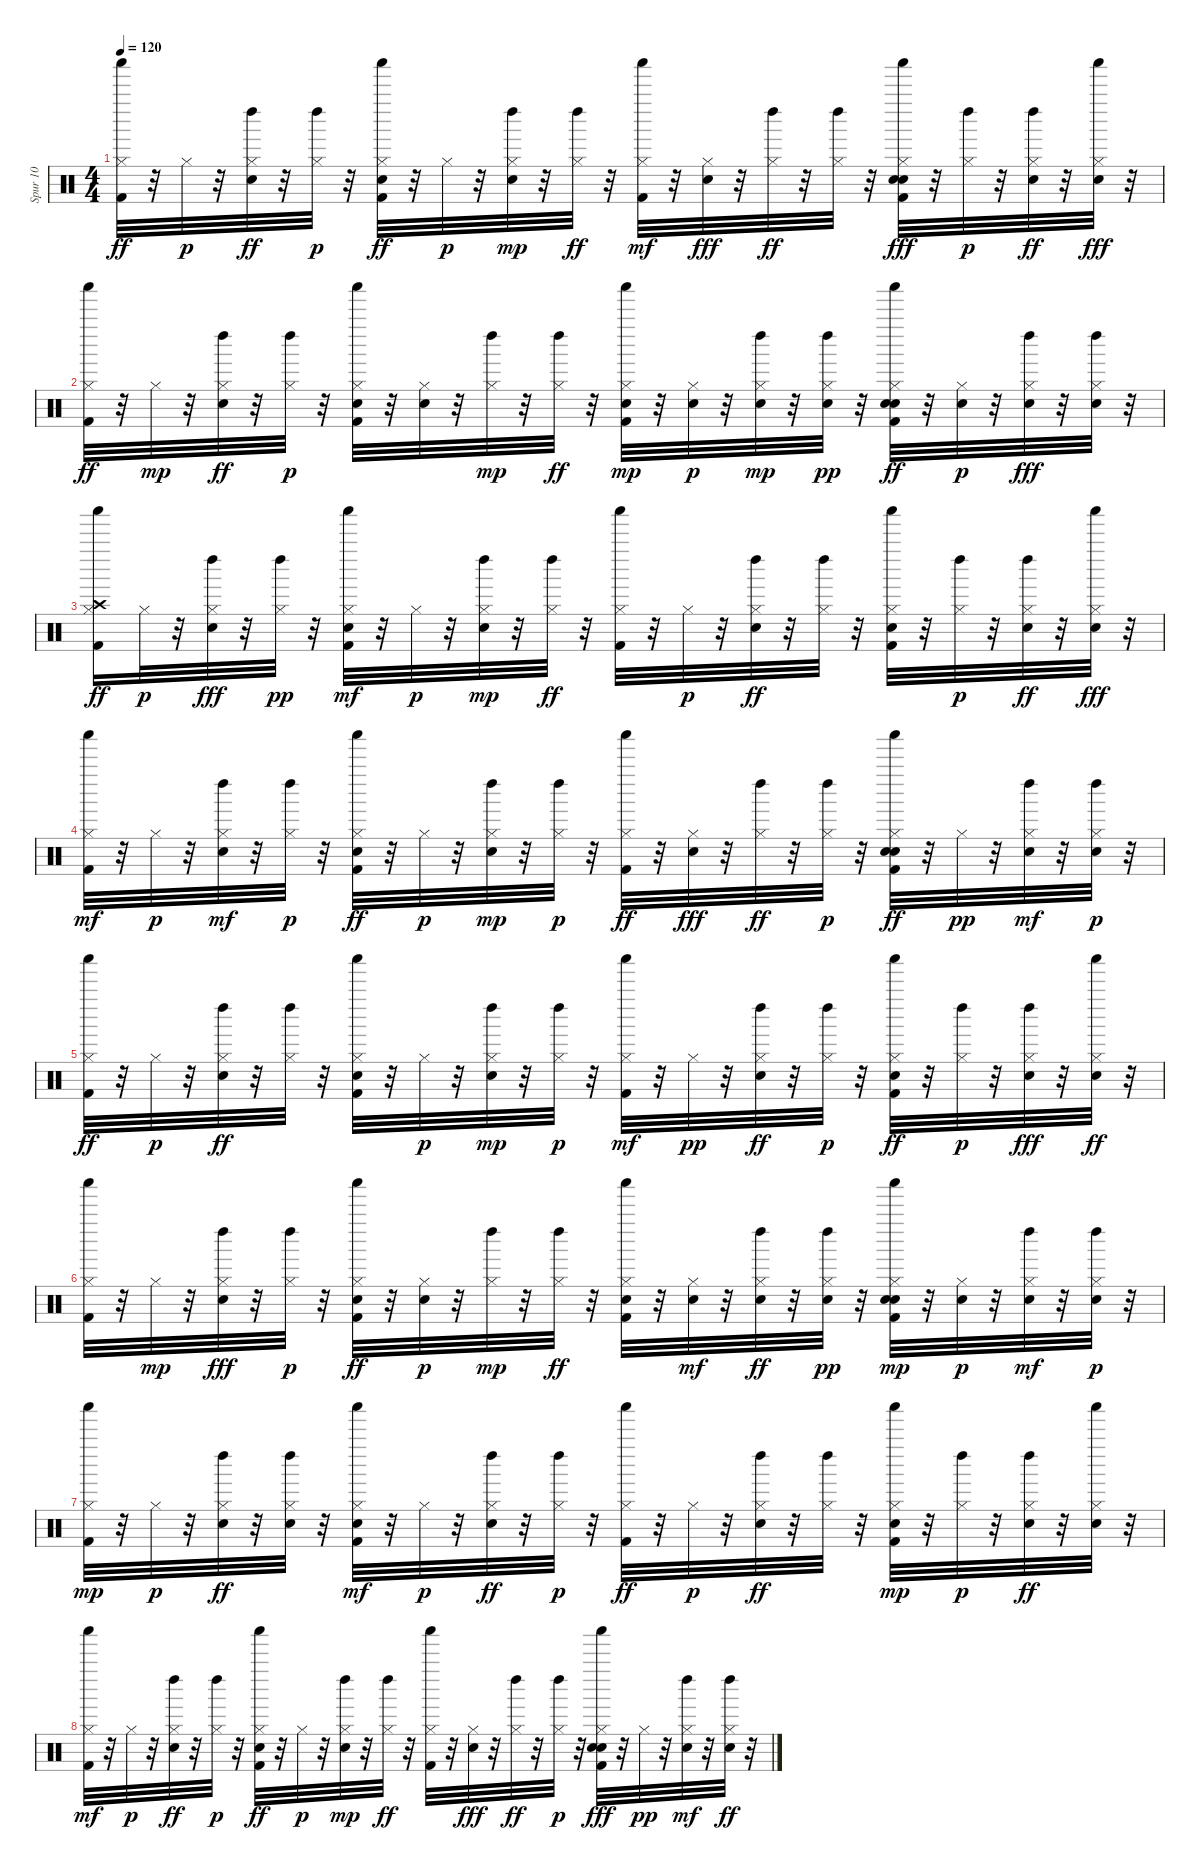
\track ("Spur 10" "Spur 10") {instrument percussion}
\staff {score}
\articulation defaults
\ts (4 4)
\tempo 120
\clef neutral
\ks c
("Hi-Hat (closed)" "Shaker (hit)" "Kick (hit) 2").32{dy ff} r.32 "Hi-Hat (closed)".32{dy p} r.32 ("Electric Snare (hit)" "Left Maraca (hit)" "Hi-Hat (closed)").32{dy ff} r.32 ("Left Maraca (hit)" "Hi-Hat (closed)").32{dy p} r.32 ("Hi-Hat (closed)" "Shaker (hit)" "Snare (hit) 2" "Kick (hit) 2").32{dy ff} r.32 "Hi-Hat (closed)".32{dy p} r.32 ("Electric Snare (hit)" "Hi-Hat (closed)" "Left Maraca (hit)").32{dy mp} r.32 ("Hi-Hat (closed)" "Left Maraca (hit)").32{dy ff} r.32 ("Kick (hit) 2" "Shaker (hit)" "Hi-Hat (closed)").32{dy mf} r.32 ("Hi-Hat (closed)" "Electric Snare (hit)").32{dy fff} r.32 ("Hi-Hat (closed)" "Left Maraca (hit)").32{dy ff} r.32 ("Hi-Hat (closed)" "Left Maraca (hit)").32 r.32 ("Snare (hit) 2" "Shaker (hit)" "Hi-Hat (closed)" "Kick (hit) 2" "Electric Snare (hit)").32{dy fff} r.32 ("Hi-Hat (closed)" "Left Maraca (hit)").32{dy p} r.32 ("Electric Snare (hit)" "Left Maraca (hit)" "Hi-Hat (closed)").32{dy ff} r.32 ("Shaker (hit)" "Electric Snare (hit)" "Hi-Hat (closed)").32{dy fff} r.32 |
("Hi-Hat (closed)" "Kick (hit) 2" "Shaker (hit)").32{dy ff} r.32 "Hi-Hat (closed)".32{dy mp} r.32 ("Left Maraca (hit)" "Electric Snare (hit)" "Hi-Hat (closed)").32{dy ff} r.32 ("Left Maraca (hit)" "Hi-Hat (closed)").32{dy p} r.32 ("Snare (hit) 2" "Kick (hit) 2" "Shaker (hit)" "Hi-Hat (closed)").32 r.32 ("Electric Snare (hit)" "Hi-Hat (closed)").32 r.32 ("Hi-Hat (closed)" "Left Maraca (hit)").32{dy mp} r.32 ("Hi-Hat (closed)" "Left Maraca (hit)").32{dy ff} r.32 ("Electric Snare (hit)" "Kick (hit) 2" "Hi-Hat (closed)" "Shaker (hit)").32{dy mp} r.32 ("Electric Snare (hit)" "Hi-Hat (closed)").32{dy p} r.32 ("Hi-Hat (closed)" "Left Maraca (hit)" "Electric Snare (hit)").32{dy mp} r.32 ("Left Maraca (hit)" "Electric Snare (hit)" "Hi-Hat (closed)").32{dy pp} r.32 ("Kick (hit) 2" "Electric Snare (hit)" "Shaker (hit)" "Hi-Hat (closed)" "Snare (hit) 2").32{dy ff} r.32 ("Electric Snare (hit)" "Hi-Hat (closed)").32{dy p} r.32 ("Left Maraca (hit)" "Hi-Hat (closed)" "Electric Snare (hit)").32{dy fff} r.32 ("Left Maraca (hit)" "Hi-Hat (closed)" "Electric Snare (hit)").32 r.32 |
("Hi-Hat (closed)" "Crash high (hit)" "Kick (hit) 2" "Shaker (hit)").16{dy ff} "Hi-Hat (closed)".32{dy p} r.32 ("Hi-Hat (closed)" "Electric Snare (hit)" "Left Maraca (hit)").32{dy fff} r.32 ("Left Maraca (hit)" "Hi-Hat (closed)").32{dy pp} r.32 ("Kick (hit) 2" "Snare (hit) 2" "Shaker (hit)" "Hi-Hat (closed)").32{dy mf} r.32 "Hi-Hat (closed)".32{dy p} r.32 ("Hi-Hat (closed)" "Electric Snare (hit)" "Left Maraca (hit)").32{dy mp} r.32 ("Hi-Hat (closed)" "Left Maraca (hit)").32{dy ff} r.32 ("Shaker (hit)" "Hi-Hat (closed)" "Kick (hit) 2").32 r.32 "Hi-Hat (closed)".32{dy p} r.32 ("Electric Snare (hit)" "Left Maraca (hit)" "Hi-Hat (closed)").32{dy ff} r.32 ("Hi-Hat (closed)" "Left Maraca (hit)").32 r.32 ("Hi-Hat (closed)" "Shaker (hit)" "Kick (hit) 2" "Snare (hit) 2").32 r.32 ("Left Maraca (hit)" "Hi-Hat (closed)").32{dy p} r.32 ("Electric Snare (hit)" "Hi-Hat (closed)" "Left Maraca (hit)").32{dy ff} r.32 ("Hi-Hat (closed)" "Electric Snare (hit)" "Shaker (hit)").32{dy fff} r.32 |
("Kick (hit) 2" "Hi-Hat (closed)" "Shaker (hit)").32{dy mf} r.32 "Hi-Hat (closed)".32{dy p} r.32 ("Electric Snare (hit)" "Hi-Hat (closed)" "Left Maraca (hit)").32{dy mf} r.32 ("Left Maraca (hit)" "Hi-Hat (closed)").32{dy p} r.32 ("Hi-Hat (closed)" "Shaker (hit)" "Snare (hit) 2" "Kick (hit) 2").32{dy ff} r.32 "Hi-Hat (closed)".32{dy p} r.32 ("Electric Snare (hit)" "Hi-Hat (closed)" "Left Maraca (hit)").32{dy mp} r.32 ("Left Maraca (hit)" "Hi-Hat (closed)").32{dy p} r.32 ("Hi-Hat (closed)" "Kick (hit) 2" "Shaker (hit)").32{dy ff} r.32 ("Hi-Hat (closed)" "Electric Snare (hit)").32{dy fff} r.32 ("Left Maraca (hit)" "Hi-Hat (closed)").32{dy ff} r.32 ("Hi-Hat (closed)" "Left Maraca (hit)").32{dy p} r.32 ("Hi-Hat (closed)" "Electric Snare (hit)" "Snare (hit) 2" "Kick (hit) 2" "Shaker (hit)").32{dy ff} r.32 "Hi-Hat (closed)".32{dy pp} r.32 ("Hi-Hat (closed)" "Electric Snare (hit)" "Left Maraca (hit)").32{dy mf} r.32 ("Left Maraca (hit)" "Electric Snare (hit)" "Hi-Hat (closed)").32{dy p} r.32 |
("Shaker (hit)" "Kick (hit) 2" "Hi-Hat (closed)").32{dy ff} r.32 "Hi-Hat (closed)".32{dy p} r.32 ("Left Maraca (hit)" "Electric Snare (hit)" "Hi-Hat (closed)").32{dy ff} r.32 ("Hi-Hat (closed)" "Left Maraca (hit)").32 r.32 ("Kick (hit) 2" "Shaker (hit)" "Snare (hit) 2" "Hi-Hat (closed)").32 r.32 "Hi-Hat (closed)".32{dy p} r.32 ("Hi-Hat (closed)" "Electric Snare (hit)" "Left Maraca (hit)").32{dy mp} r.32 ("Left Maraca (hit)" "Hi-Hat (closed)").32{dy p} r.32 ("Kick (hit) 2" "Hi-Hat (closed)" "Shaker (hit)").32{dy mf} r.32 "Hi-Hat (closed)".32{dy pp} r.32 ("Left Maraca (hit)" "Electric Snare (hit)" "Hi-Hat (closed)").32{dy ff} r.32 ("Left Maraca (hit)" "Hi-Hat (closed)").32{dy p} r.32 ("Kick (hit) 2" "Hi-Hat (closed)" "Snare (hit) 2" "Shaker (hit)").32{dy ff} r.32 ("Left Maraca (hit)" "Hi-Hat (closed)").32{dy p} r.32 ("Left Maraca (hit)" "Hi-Hat (closed)" "Electric Snare (hit)").32{dy fff} r.32 ("Hi-Hat (closed)" "Electric Snare (hit)" "Shaker (hit)").32{dy ff} r.32 |
("Kick (hit) 2" "Shaker (hit)" "Hi-Hat (closed)").32 r.32 "Hi-Hat (closed)".32{dy mp} r.32 ("Left Maraca (hit)" "Hi-Hat (closed)" "Electric Snare (hit)").32{dy fff} r.32 ("Hi-Hat (closed)" "Left Maraca (hit)").32{dy p} r.32 ("Kick (hit) 2" "Hi-Hat (closed)" "Shaker (hit)" "Snare (hit) 2").32{dy ff} r.32 ("Electric Snare (hit)" "Hi-Hat (closed)").32{dy p} r.32 ("Hi-Hat (closed)" "Left Maraca (hit)").32{dy mp} r.32 ("Hi-Hat (closed)" "Left Maraca (hit)").32{dy ff} r.32 ("Shaker (hit)" "Electric Snare (hit)" "Hi-Hat (closed)" "Kick (hit) 2").32 r.32 ("Hi-Hat (closed)" "Electric Snare (hit)").32{dy mf} r.32 ("Electric Snare (hit)" "Hi-Hat (closed)" "Left Maraca (hit)").32{dy ff} r.32 ("Electric Snare (hit)" "Left Maraca (hit)" "Hi-Hat (closed)").32{dy pp} r.32 ("Kick (hit) 2" "Electric Snare (hit)" "Snare (hit) 2" "Hi-Hat (closed)" "Shaker (hit)").32{dy mp} r.32 ("Electric Snare (hit)" "Hi-Hat (closed)").32{dy p} r.32 ("Electric Snare (hit)" "Hi-Hat (closed)" "Left Maraca (hit)").32{dy mf} r.32 ("Left Maraca (hit)" "Electric Snare (hit)" "Hi-Hat (closed)").32{dy p} r.32 |
("Kick (hit) 2" "Shaker (hit)" "Hi-Hat (closed)").32{dy mp} r.32 "Hi-Hat (closed)".32{dy p} r.32 ("Electric Snare (hit)" "Hi-Hat (closed)" "Left Maraca (hit)").32{dy ff} r.32 ("Hi-Hat (closed)" "Electric Snare (hit)" "Left Maraca (hit)").32 r.32 ("Snare (hit) 2" "Kick (hit) 2" "Shaker (hit)" "Hi-Hat (closed)").32{dy mf} r.32 "Hi-Hat (closed)".32{dy p} r.32 ("Left Maraca (hit)" "Electric Snare (hit)" "Hi-Hat (closed)").32{dy ff} r.32 ("Left Maraca (hit)" "Hi-Hat (closed)").32{dy p} r.32 ("Hi-Hat (closed)" "Shaker (hit)" "Kick (hit) 2").32{dy ff} r.32 "Hi-Hat (closed)".32{dy p} r.32 ("Electric Snare (hit)" "Hi-Hat (closed)" "Left Maraca (hit)").32{dy ff} r.32 ("Hi-Hat (closed)" "Left Maraca (hit)").32 r.32 ("Kick (hit) 2" "Shaker (hit)" "Snare (hit) 2" "Hi-Hat (closed)").32{dy mp} r.32 ("Left Maraca (hit)" "Hi-Hat (closed)").32{dy p} r.32 ("Electric Snare (hit)" "Left Maraca (hit)" "Hi-Hat (closed)").32{dy ff} r.32 ("Hi-Hat (closed)" "Electric Snare (hit)" "Shaker (hit)").32 r.32 |
("Kick (hit) 2" "Hi-Hat (closed)" "Shaker (hit)").32{dy mf} r.32 "Hi-Hat (closed)".32{dy p} r.32 ("Electric Snare (hit)" "Left Maraca (hit)" "Hi-Hat (closed)").32{dy ff} r.32 ("Left Maraca (hit)" "Hi-Hat (closed)").32{dy p} r.32 ("Snare (hit) 2" "Hi-Hat (closed)" "Shaker (hit)" "Kick (hit) 2").32{dy ff} r.32 "Hi-Hat (closed)".32{dy p} r.32 ("Hi-Hat (closed)" "Electric Snare (hit)" "Left Maraca (hit)").32{dy mp} r.32 ("Hi-Hat (closed)" "Left Maraca (hit)").32{dy ff} r.32 ("Hi-Hat (closed)" "Shaker (hit)" "Kick (hit) 2").32 r.32 ("Hi-Hat (closed)" "Electric Snare (hit)").32{dy fff} r.32 ("Hi-Hat (closed)" "Left Maraca (hit)").32{dy ff} r.32 ("Hi-Hat (closed)" "Left Maraca (hit)").32{dy p} r.32 ("Snare (hit) 2" "Hi-Hat (closed)" "Kick (hit) 2" "Shaker (hit)" "Electric Snare (hit)").32{dy fff} r.32 "Hi-Hat (closed)".32{dy pp} r.32 ("Electric Snare (hit)" "Hi-Hat (closed)" "Left Maraca (hit)").32{dy mf} r.32 ("Electric Snare (hit)" "Hi-Hat (closed)" "Left Maraca (hit)").32{dy ff} r.32
